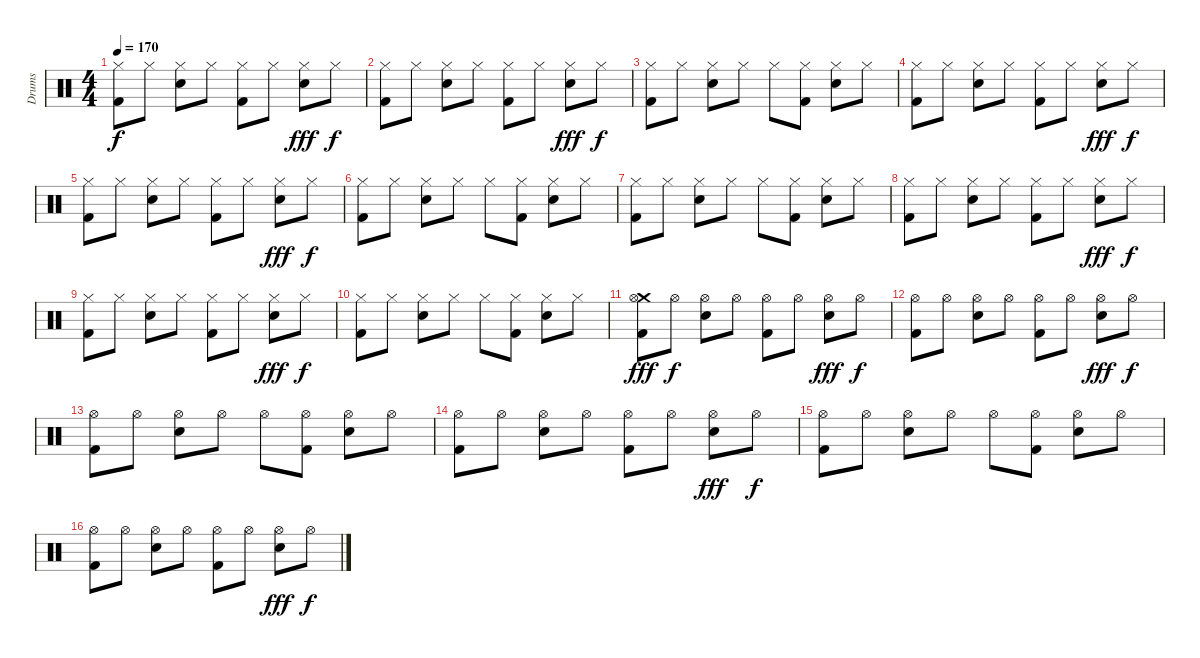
\track ("Drums" "Drums") {instrument percussion}
\staff {score}
\articulation defaults
\ts (4 4)
\tempo 170
\clef neutral
\ks c
("Hi-Hat (closed)" "Kick (hit) 2").8{dy f} "Hi-Hat (closed)".8 ("Hi-Hat (closed)" "Electric Snare (hit)").8 "Hi-Hat (closed)".8 ("Hi-Hat (closed)" "Kick (hit) 2").8 "Hi-Hat (closed)".8 ("Hi-Hat (closed)" "Electric Snare (hit)").8{dy fff} "Hi-Hat (closed)".8{dy f} |
("Hi-Hat (closed)" "Kick (hit) 2").8 "Hi-Hat (closed)".8 ("Hi-Hat (closed)" "Electric Snare (hit)").8 "Hi-Hat (closed)".8 ("Hi-Hat (closed)" "Kick (hit) 2").8 "Hi-Hat (closed)".8 ("Hi-Hat (closed)" "Electric Snare (hit)").8{dy fff} "Hi-Hat (closed)".8{dy f} |
("Hi-Hat (closed)" "Kick (hit) 2").8 "Hi-Hat (closed)".8 ("Hi-Hat (closed)" "Electric Snare (hit)").8 "Hi-Hat (closed)".8 "Hi-Hat (closed)".8 ("Hi-Hat (closed)" "Kick (hit) 2").8 ("Hi-Hat (closed)" "Electric Snare (hit)").8 "Hi-Hat (closed)".8 |
("Hi-Hat (closed)" "Kick (hit) 2").8 "Hi-Hat (closed)".8 ("Hi-Hat (closed)" "Electric Snare (hit)").8 "Hi-Hat (closed)".8 ("Hi-Hat (closed)" "Kick (hit) 2").8 "Hi-Hat (closed)".8 ("Hi-Hat (closed)" "Electric Snare (hit)").8{dy fff} "Hi-Hat (closed)".8{dy f} |
("Hi-Hat (closed)" "Kick (hit) 2").8 "Hi-Hat (closed)".8 ("Hi-Hat (closed)" "Electric Snare (hit)").8 "Hi-Hat (closed)".8 ("Hi-Hat (closed)" "Kick (hit) 2").8 "Hi-Hat (closed)".8 ("Hi-Hat (closed)" "Electric Snare (hit)").8{dy fff} "Hi-Hat (closed)".8{dy f} |
("Hi-Hat (closed)" "Kick (hit) 2").8 "Hi-Hat (closed)".8 ("Hi-Hat (closed)" "Electric Snare (hit)").8 "Hi-Hat (closed)".8 "Hi-Hat (closed)".8 ("Hi-Hat (closed)" "Kick (hit) 2").8 ("Hi-Hat (closed)" "Electric Snare (hit)").8 "Hi-Hat (closed)".8 |
("Hi-Hat (closed)" "Kick (hit) 2").8 "Hi-Hat (closed)".8 ("Hi-Hat (closed)" "Electric Snare (hit)").8 "Hi-Hat (closed)".8 "Hi-Hat (closed)".8 ("Hi-Hat (closed)" "Kick (hit) 2").8 ("Hi-Hat (closed)" "Electric Snare (hit)").8 "Hi-Hat (closed)".8 |
("Hi-Hat (closed)" "Kick (hit) 2").8 "Hi-Hat (closed)".8 ("Hi-Hat (closed)" "Electric Snare (hit)").8 "Hi-Hat (closed)".8 ("Hi-Hat (closed)" "Kick (hit) 2").8 "Hi-Hat (closed)".8 ("Hi-Hat (closed)" "Electric Snare (hit)").8{dy fff} "Hi-Hat (closed)".8{dy f} |
("Hi-Hat (closed)" "Kick (hit) 2").8 "Hi-Hat (closed)".8 ("Hi-Hat (closed)" "Electric Snare (hit)").8 "Hi-Hat (closed)".8 ("Hi-Hat (closed)" "Kick (hit) 2").8 "Hi-Hat (closed)".8 ("Hi-Hat (closed)" "Electric Snare (hit)").8{dy fff} "Hi-Hat (closed)".8{dy f} |
("Hi-Hat (closed)" "Kick (hit) 2").8 "Hi-Hat (closed)".8 ("Hi-Hat (closed)" "Electric Snare (hit)").8 "Hi-Hat (closed)".8 "Hi-Hat (closed)".8 ("Hi-Hat (closed)" "Kick (hit) 2").8 ("Hi-Hat (closed)" "Electric Snare (hit)").8 "Hi-Hat (closed)".8 |
("Crash medium (hit)" "Hi-Hat (open)" "Kick (hit) 2").8{dy fff} "Hi-Hat (open)".8{dy f} ("Hi-Hat (open)" "Electric Snare (hit)").8 "Hi-Hat (open)".8 ("Hi-Hat (open)" "Kick (hit) 2").8 "Hi-Hat (open)".8 ("Hi-Hat (open)" "Electric Snare (hit)").8{dy fff} "Hi-Hat (open)".8{dy f} |
("Hi-Hat (open)" "Kick (hit) 2").8 "Hi-Hat (open)".8 ("Hi-Hat (open)" "Electric Snare (hit)").8 "Hi-Hat (open)".8 ("Hi-Hat (open)" "Kick (hit) 2").8 "Hi-Hat (open)".8 ("Hi-Hat (open)" "Electric Snare (hit)").8{dy fff} "Hi-Hat (open)".8{dy f} |
("Hi-Hat (open)" "Kick (hit) 2").8 "Hi-Hat (open)".8 ("Hi-Hat (open)" "Electric Snare (hit)").8 "Hi-Hat (open)".8 "Hi-Hat (open)".8 ("Hi-Hat (open)" "Kick (hit) 2").8 ("Hi-Hat (open)" "Electric Snare (hit)").8 "Hi-Hat (open)".8 |
("Hi-Hat (open)" "Kick (hit) 2").8 "Hi-Hat (open)".8 ("Hi-Hat (open)" "Electric Snare (hit)").8 "Hi-Hat (open)".8 ("Hi-Hat (open)" "Kick (hit) 2").8 "Hi-Hat (open)".8 ("Hi-Hat (open)" "Electric Snare (hit)").8{dy fff} "Hi-Hat (open)".8{dy f volume 10} |
("Hi-Hat (open)" "Kick (hit) 2").8 "Hi-Hat (open)".8 ("Hi-Hat (open)" "Electric Snare (hit)").8 "Hi-Hat (open)".8 "Hi-Hat (open)".8 ("Hi-Hat (open)" "Kick (hit) 2").8 ("Hi-Hat (open)" "Electric Snare (hit)").8 "Hi-Hat (open)".8 |
("Hi-Hat (open)" "Kick (hit) 2").8 "Hi-Hat (open)".8 ("Hi-Hat (open)" "Electric Snare (hit)").8 "Hi-Hat (open)".8 ("Hi-Hat (open)" "Kick (hit) 2").8 "Hi-Hat (open)".8 ("Hi-Hat (open)" "Electric Snare (hit)").8{dy fff} "Hi-Hat (open)".8{dy f volume 7}
